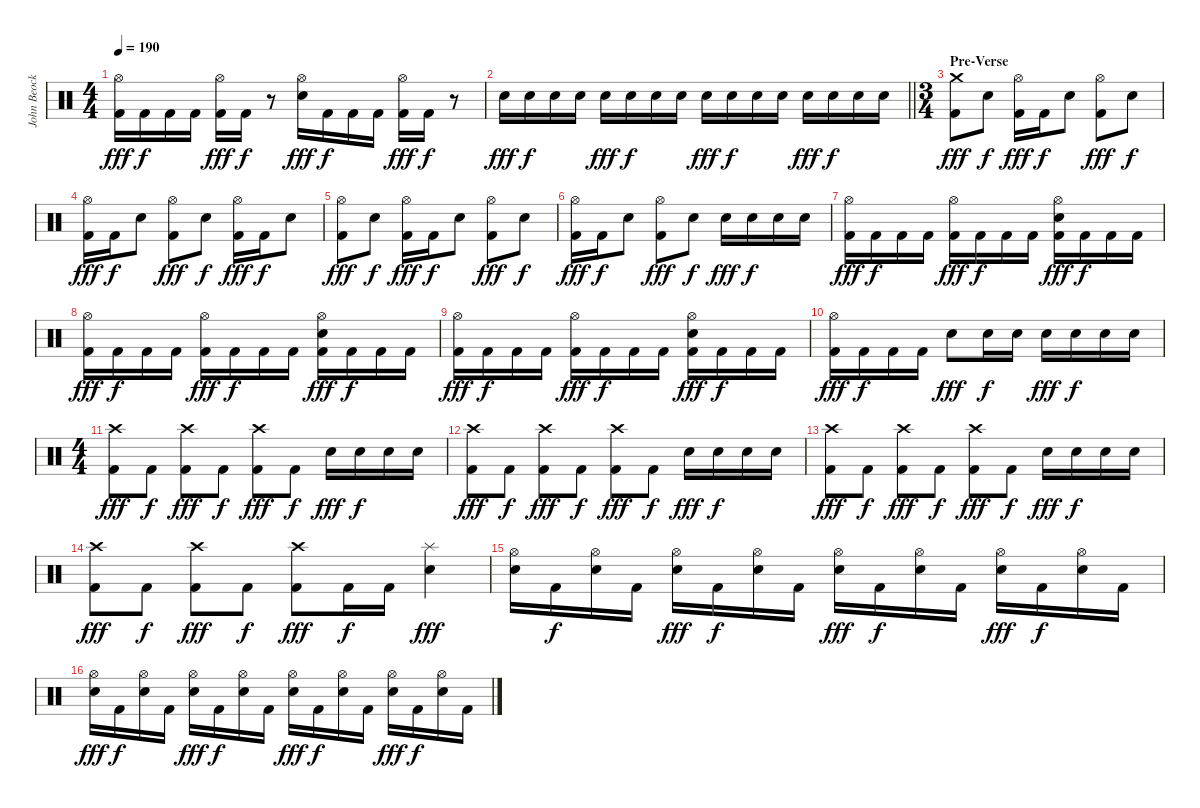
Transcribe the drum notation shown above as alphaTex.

\track ("John Beocklin (Drums)" "John Beock") {instrument percussion}
\staff {score}
\articulation defaults
\ts (4 4)
\tempo 190
\clef neutral
\ks c
("Hi-Hat (open)" "Kick (hit) 2").16{dy fff} "Kick (hit) 2".16{dy f} "Kick (hit) 2".16 "Kick (hit) 2".16 ("Hi-Hat (open)" "Kick (hit) 2").16{dy fff} "Kick (hit) 2".16{dy f} r.8 ("Hi-Hat (open)" "Snare (hit) 2").16{dy fff} "Kick (hit) 2".16{dy f} "Kick (hit) 2".16 "Kick (hit) 2".16 ("Hi-Hat (open)" "Kick (hit) 2").16{dy fff} "Kick (hit) 2".16{dy f} r.8 |
\barLineRight lightlight "Snare (hit) 2".16{dy fff} "Snare (hit) 2".16{dy f} "Snare (hit) 2".16 "Snare (hit) 2".16 "Snare (hit) 2".16{dy fff} "Snare (hit) 2".16{dy f} "Snare (hit) 2".16 "Snare (hit) 2".16 "Snare (hit) 2".16{dy fff} "Snare (hit) 2".16{dy f} "Snare (hit) 2".16 "Snare (hit) 2".16 "Snare (hit) 2".16{dy fff} "Snare (hit) 2".16{dy f} "Snare (hit) 2".16 "Snare (hit) 2".16
|
\ts (3 4)
\section ("" "Pre-Verse")
("Crash medium (hit)" "Kick (hit) 2").8{dy fff} "Snare (hit) 2".8{dy f} ("Hi-Hat (open)" "Kick (hit) 2").16{dy fff} "Kick (hit) 2".16{dy f} "Snare (hit) 2".8 ("Hi-Hat (open)" "Kick (hit) 2").8{dy fff} "Snare (hit) 2".8{dy f} |
("Hi-Hat (open)" "Kick (hit) 2").16{dy fff} "Kick (hit) 2".16{dy f} "Snare (hit) 2".8 ("Hi-Hat (open)" "Kick (hit) 2").8{dy fff} "Snare (hit) 2".8{dy f} ("Hi-Hat (open)" "Kick (hit) 2").16{dy fff} "Kick (hit) 2".16{dy f} "Snare (hit) 2".8 |
("Hi-Hat (open)" "Kick (hit) 2").8{dy fff} "Snare (hit) 2".8{dy f} ("Hi-Hat (open)" "Kick (hit) 2").16{dy fff} "Kick (hit) 2".16{dy f} "Snare (hit) 2".8 ("Hi-Hat (open)" "Kick (hit) 2").8{dy fff} "Snare (hit) 2".8{dy f} |
("Hi-Hat (open)" "Kick (hit) 2").16{dy fff} "Kick (hit) 2".16{dy f} "Snare (hit) 2".8 ("Hi-Hat (open)" "Kick (hit) 2").8{dy fff} "Snare (hit) 2".8{dy f} "Snare (hit) 2".16{dy fff} "Snare (hit) 2".16{dy f} "Snare (hit) 2".16 "Snare (hit) 2".16 |
("Hi-Hat (open)" "Kick (hit) 2").16{dy fff} "Kick (hit) 2".16{dy f} "Kick (hit) 2".16 "Kick (hit) 2".16 ("Hi-Hat (open)" "Kick (hit) 2").16{dy fff} "Kick (hit) 2".16{dy f} "Kick (hit) 2".16 "Kick (hit) 2".16 ("Hi-Hat (open)" "Snare (hit) 2" "Kick (hit) 2").16{dy fff} "Kick (hit) 2".16{dy f} "Kick (hit) 2".16 "Kick (hit) 2".16 |
("Hi-Hat (open)" "Kick (hit) 2").16{dy fff} "Kick (hit) 2".16{dy f} "Kick (hit) 2".16 "Kick (hit) 2".16 ("Hi-Hat (open)" "Kick (hit) 2").16{dy fff} "Kick (hit) 2".16{dy f} "Kick (hit) 2".16 "Kick (hit) 2".16 ("Hi-Hat (open)" "Snare (hit) 2" "Kick (hit) 2").16{dy fff} "Kick (hit) 2".16{dy f} "Kick (hit) 2".16 "Kick (hit) 2".16 |
("Hi-Hat (open)" "Kick (hit) 2").16{dy fff} "Kick (hit) 2".16{dy f} "Kick (hit) 2".16 "Kick (hit) 2".16 ("Hi-Hat (open)" "Kick (hit) 2").16{dy fff} "Kick (hit) 2".16{dy f} "Kick (hit) 2".16 "Kick (hit) 2".16 ("Hi-Hat (open)" "Snare (hit) 2" "Kick (hit) 2").16{dy fff} "Kick (hit) 2".16{dy f} "Kick (hit) 2".16 "Kick (hit) 2".16 |
("Hi-Hat (open)" "Kick (hit) 2").16{dy fff} "Kick (hit) 2".16{dy f} "Kick (hit) 2".16 "Kick (hit) 2".16 "Snare (hit) 2".8{dy fff} "Snare (hit) 2".16{dy f} "Snare (hit) 2".16 "Snare (hit) 2".16{dy fff} "Snare (hit) 2".16{dy f} "Snare (hit) 2".16 "Snare (hit) 2".16 |
\ts (4 4)
("Crash high (hit)" "Kick (hit) 2").8{dy fff} "Kick (hit) 2".8{dy f} ("Crash high (hit)" "Kick (hit) 2").8{dy fff} "Kick (hit) 2".8{dy f} ("Crash high (hit)" "Kick (hit) 2").8{dy fff} "Kick (hit) 2".8{dy f} "Snare (hit) 2".16{dy fff} "Snare (hit) 2".16{dy f} "Snare (hit) 2".16 "Snare (hit) 2".16 |
("Crash high (hit)" "Kick (hit) 2").8{dy fff} "Kick (hit) 2".8{dy f} ("Crash high (hit)" "Kick (hit) 2").8{dy fff} "Kick (hit) 2".8{dy f} ("Crash high (hit)" "Kick (hit) 2").8{dy fff} "Kick (hit) 2".8{dy f} "Snare (hit) 2".16{dy fff} "Snare (hit) 2".16{dy f} "Snare (hit) 2".16 "Snare (hit) 2".16 |
("Crash high (hit)" "Kick (hit) 2").8{dy fff} "Kick (hit) 2".8{dy f} ("Crash high (hit)" "Kick (hit) 2").8{dy fff} "Kick (hit) 2".8{dy f} ("Crash high (hit)" "Kick (hit) 2").8{dy fff} "Kick (hit) 2".8{dy f} "Snare (hit) 2".16{dy fff} "Snare (hit) 2".16{dy f} "Snare (hit) 2".16 "Snare (hit) 2".16 |
("Crash high (hit)" "Kick (hit) 2").8{dy fff} "Kick (hit) 2".8{dy f} ("Crash high (hit)" "Kick (hit) 2").8{dy fff} "Kick (hit) 2".8{dy f} ("Crash high (hit)" "Kick (hit) 2").8{dy fff} "Kick (hit) 2".16{dy f} "Kick (hit) 2".16 ("Splash (hit)" "Snare (hit) 2").4{dy fff} |
("Hi-Hat (open)" "Snare (hit) 2").16 "Kick (hit) 2".16{dy f} ("Hi-Hat (open)" "Snare (hit) 2").16 "Kick (hit) 2".16 ("Hi-Hat (open)" "Snare (hit) 2").16{dy fff} "Kick (hit) 2".16{dy f} ("Hi-Hat (open)" "Snare (hit) 2").16 "Kick (hit) 2".16 ("Hi-Hat (open)" "Snare (hit) 2").16{dy fff} "Kick (hit) 2".16{dy f} ("Hi-Hat (open)" "Snare (hit) 2").16 "Kick (hit) 2".16 ("Hi-Hat (open)" "Snare (hit) 2").16{dy fff} "Kick (hit) 2".16{dy f} ("Hi-Hat (open)" "Snare (hit) 2").16 "Kick (hit) 2".16 |
("Hi-Hat (open)" "Snare (hit) 2").16{dy fff} "Kick (hit) 2".16{dy f} ("Hi-Hat (open)" "Snare (hit) 2").16 "Kick (hit) 2".16 ("Hi-Hat (open)" "Snare (hit) 2").16{dy fff} "Kick (hit) 2".16{dy f} ("Hi-Hat (open)" "Snare (hit) 2").16 "Kick (hit) 2".16 ("Hi-Hat (open)" "Snare (hit) 2").16{dy fff} "Kick (hit) 2".16{dy f} ("Hi-Hat (open)" "Snare (hit) 2").16 "Kick (hit) 2".16 ("Hi-Hat (open)" "Snare (hit) 2").16{dy fff} "Kick (hit) 2".16{dy f} ("Hi-Hat (open)" "Snare (hit) 2").16 "Kick (hit) 2".16
